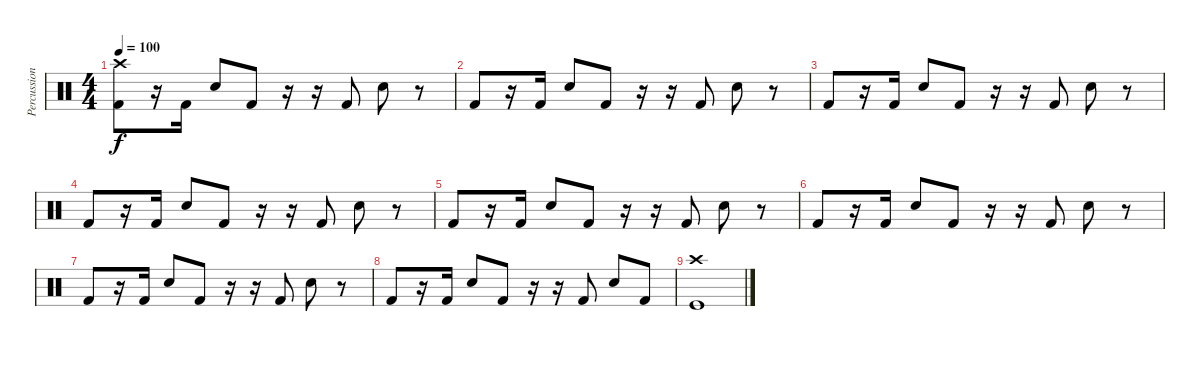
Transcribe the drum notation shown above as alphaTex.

\track ("Percussions" "Percussion") {instrument percussion}
\staff {score}
\articulation defaults
\ts (4 4)
\tempo 100
\clef neutral
\ks c
("Crash high (hit)" "Kick (hit) 2").8{dy f} r.16 "Kick (hit) 2".16 "Snare (hit) 2".8 "Kick (hit) 2".8 r.16 r.16 "Kick (hit) 2".8 "Snare (hit) 2".8 r.8 |
"Kick (hit) 2".8 r.16 "Kick (hit) 2".16 "Snare (hit) 2".8 "Kick (hit) 2".8 r.16 r.16 "Kick (hit) 2".8 "Snare (hit) 2".8 r.8 |
"Kick (hit) 2".8 r.16 "Kick (hit) 2".16 "Snare (hit) 2".8 "Kick (hit) 2".8 r.16 r.16 "Kick (hit) 2".8 "Snare (hit) 2".8 r.8 |
"Kick (hit) 2".8 r.16 "Kick (hit) 2".16 "Snare (hit) 2".8 "Kick (hit) 2".8 r.16 r.16 "Kick (hit) 2".8 "Snare (hit) 2".8 r.8 |
"Kick (hit) 2".8 r.16 "Kick (hit) 2".16 "Snare (hit) 2".8 "Kick (hit) 2".8 r.16 r.16 "Kick (hit) 2".8 "Snare (hit) 2".8 r.8 |
"Kick (hit) 2".8 r.16 "Kick (hit) 2".16 "Snare (hit) 2".8 "Kick (hit) 2".8 r.16 r.16 "Kick (hit) 2".8 "Snare (hit) 2".8 r.8 |
"Kick (hit) 2".8 r.16 "Kick (hit) 2".16 "Snare (hit) 2".8 "Kick (hit) 2".8 r.16 r.16 "Kick (hit) 2".8 "Snare (hit) 2".8 r.8 |
"Kick (hit) 2".8 r.16 "Kick (hit) 2".16 "Snare (hit) 2".8 "Kick (hit) 2".8 r.16 r.16 "Kick (hit) 2".8 "Snare (hit) 2".8 "Kick (hit) 2".8 |
("Crash high (hit)" "Kick (hit)").1
